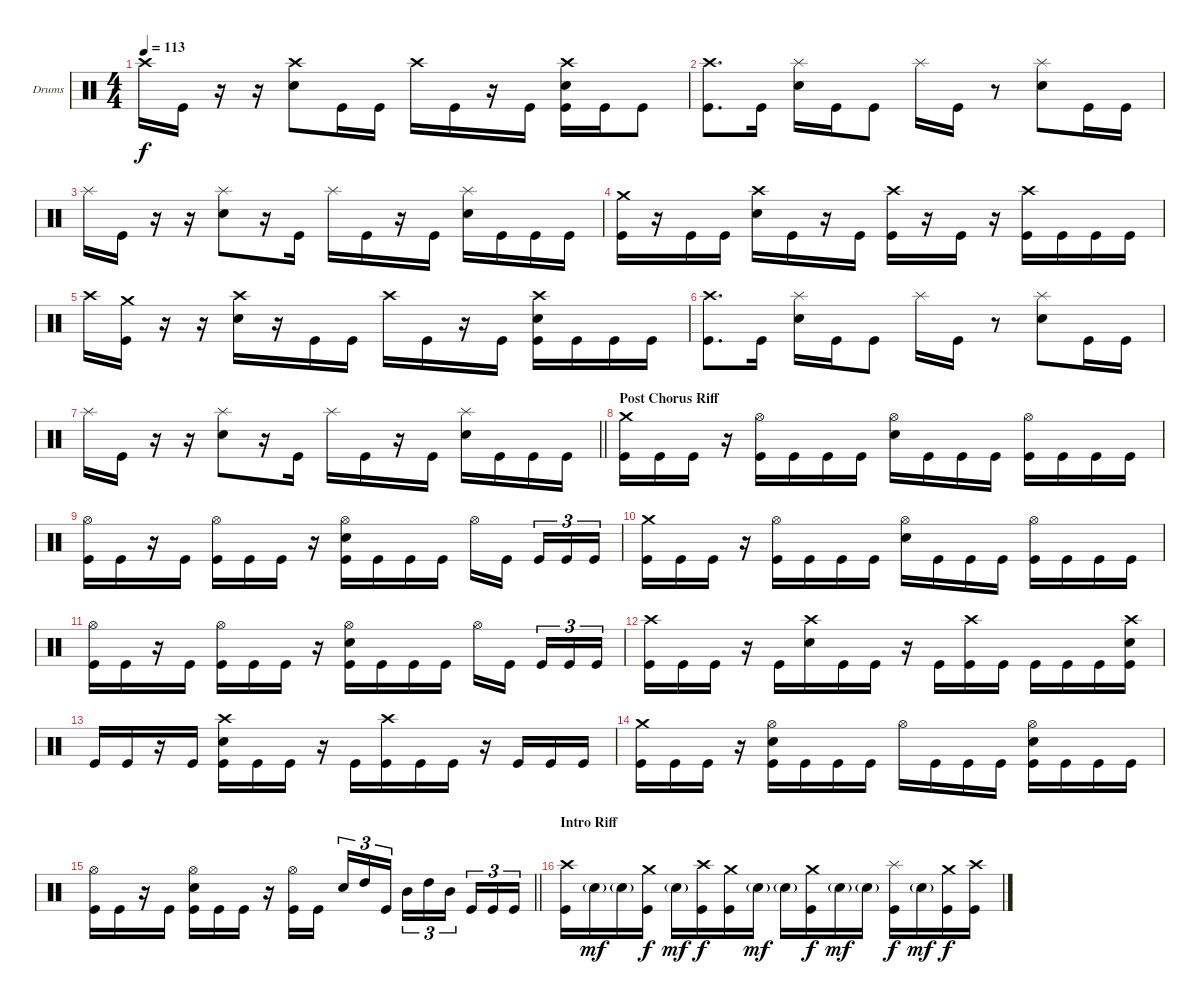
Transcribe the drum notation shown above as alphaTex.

\bracketExtendMode groupsimilarinstruments
\firstSystemTrackNameOrientation horizontal
\otherSystemsTrackNameOrientation horizontal
\track ("Drumkit" "Drums") {instrument percussion}
\staff {score}
\articulation defaults
\ts (4 4)
\tempo 113
\clef neutral
\ks c "Crash high (hit)".16{dy f} "Kick (hit)".16
r.16 r.16 ("Crash high (hit)" "Snare (hit) 2").8 "Kick (hit)".16 "Kick (hit)".16 "Crash high (hit)".16 "Kick (hit)".16 r.16 "Kick (hit)".16 ("Crash high (hit)" "Snare (hit) 2" "Kick (hit)").16 "Kick (hit)".16 "Kick (hit)".8 |
("Crash high (hit)" "Kick (hit)").8{d} "Kick (hit)".16 ("Splash (hit)" "Snare (hit) 2").16 "Kick (hit)".16 "Kick (hit)".8 "Splash (hit)".16 "Kick (hit)".16 r.8 ("Splash (hit)" "Snare (hit) 2").8 "Kick (hit)".16 "Kick (hit)".16 |
"Splash (hit)".16 "Kick (hit)".16 r.16 r.16 ("Splash (hit)" "Snare (hit) 2").8 r.16 "Kick (hit)".16 "Splash (hit)".16 "Kick (hit)".16 r.16 "Kick (hit)".16 ("Splash (hit)" "Snare (hit) 2").16 "Kick (hit)".16 "Kick (hit)".16 "Kick (hit)".16 |
("Crash medium (hit)" "Kick (hit)").16 r.16 "Kick (hit)".16 "Kick (hit)".16 ("Crash high (hit)" "Snare (hit) 2").16 "Kick (hit)".16 r.16 "Kick (hit)".16 ("Crash high (hit)" "Kick (hit)").16 r.16 "Kick (hit)".16 r.16 ("Crash high (hit)" "Kick (hit)").16 "Kick (hit)".16 "Kick (hit)".16 "Kick (hit)".16 |
"Crash high (hit)".16 ("Crash medium (hit)" "Kick (hit)").16 r.16 r.16 ("Crash high (hit)" "Snare (hit) 2").16 r.16 "Kick (hit)".16 "Kick (hit)".16 "Crash high (hit)".16 "Kick (hit)".16 r.16 "Kick (hit)".16 ("Crash high (hit)" "Snare (hit) 2" "Kick (hit)").16 "Kick (hit)".16 "Kick (hit)".16 "Kick (hit)".16 |
("Crash high (hit)" "Kick (hit)").8{d} "Kick (hit)".16 ("Splash (hit)" "Snare (hit) 2").16 "Kick (hit)".16 "Kick (hit)".8 "Splash (hit)".16 "Kick (hit)".16 r.8 ("Splash (hit)" "Snare (hit) 2").8 "Kick (hit)".16 "Kick (hit)".16 |
\barLineRight lightlight "Splash (hit)".16 "Kick (hit)".16
r.16 r.16 ("Splash (hit)" "Snare (hit) 2").8 r.16 "Kick (hit)".16 "Splash (hit)".16 "Kick (hit)".16 r.16 "Kick (hit)".16 ("Splash (hit)" "Snare (hit) 2").16 "Kick (hit)".16 "Kick (hit)".16 "Kick (hit)".16 |
\section ("" "Post Chorus Riff")
("Crash medium (hit)" "Kick (hit)").16 "Kick (hit)".16 "Kick (hit)".16 r.16 ("Hi-Hat (open)" "Kick (hit)").16 "Kick (hit)".16 "Kick (hit)".16 "Kick (hit)".16 ("Hi-Hat (open)" "Snare (hit) 2").16 "Kick (hit)".16 "Kick (hit)".16 "Kick (hit)".16 ("Hi-Hat (open)" "Kick (hit)").16 "Kick (hit)".16 "Kick (hit)".16 "Kick (hit)".16 |
("Hi-Hat (open)" "Kick (hit)").16 "Kick (hit)".16 r.16 "Kick (hit)".16 ("Hi-Hat (open)" "Kick (hit)").16 "Kick (hit)".16 "Kick (hit)".16 r.16 ("Hi-Hat (open)" "Snare (hit) 2" "Kick (hit)").16 "Kick (hit)".16 "Kick (hit)".16 "Kick (hit)".16 "Hi-Hat (open)".16 "Kick (hit)".16 "Kick (hit)".16{tu (3 2)} "Kick (hit)".16{tu (3 2)} "Kick (hit)".16{tu (3 2)} |
("Crash medium (hit)" "Kick (hit)").16 "Kick (hit)".16 "Kick (hit)".16 r.16 ("Hi-Hat (open)" "Kick (hit)").16 "Kick (hit)".16 "Kick (hit)".16 "Kick (hit)".16 ("Hi-Hat (open)" "Snare (hit) 2").16 "Kick (hit)".16 "Kick (hit)".16 "Kick (hit)".16 ("Hi-Hat (open)" "Kick (hit)").16 "Kick (hit)".16 "Kick (hit)".16 "Kick (hit)".16 |
("Hi-Hat (open)" "Kick (hit)").16 "Kick (hit)".16 r.16 "Kick (hit)".16 ("Hi-Hat (open)" "Kick (hit)").16 "Kick (hit)".16 "Kick (hit)".16 r.16 ("Hi-Hat (open)" "Snare (hit) 2" "Kick (hit)").16 "Kick (hit)".16 "Kick (hit)".16 "Kick (hit)".16 "Hi-Hat (open)".16 "Kick (hit)".16 "Kick (hit)".16{tu (3 2)} "Kick (hit)".16{tu (3 2)} "Kick (hit)".16{tu (3 2)} |
("Crash high (hit)" "Kick (hit)").16 "Kick (hit)".16 "Kick (hit)".16 r.16 "Kick (hit)".16 ("Crash high (hit)" "Snare (hit) 2").16 "Kick (hit)".16 "Kick (hit)".16 r.16 "Kick (hit)".16 ("Crash high (hit)" "Kick (hit)").16 "Kick (hit)".16 "Kick (hit)".16 "Kick (hit)".16 "Kick (hit)".16 ("Crash high (hit)" "Snare (hit) 2" "Kick (hit)").16 |
"Kick (hit)".16 "Kick (hit)".16 r.16 "Kick (hit)".16 ("Crash high (hit)" "Snare (hit) 2" "Kick (hit)").16 "Kick (hit)".16 "Kick (hit)".16 r.16 "Kick (hit)".16 ("Crash high (hit)" "Kick (hit)").16 "Kick (hit)".16 "Kick (hit)".16 r.16 "Kick (hit)".16 "Kick (hit)".16 "Kick (hit)".16 |
("Crash medium (hit)" "Kick (hit)").16 "Kick (hit)".16 "Kick (hit)".16 r.16 ("Hi-Hat (open)" "Snare (hit) 2" "Kick (hit)").16 "Kick (hit)".16 "Kick (hit)".16 "Kick (hit)".16 "Hi-Hat (open)".16 "Kick (hit)".16 "Kick (hit)".16 "Kick (hit)".16 ("Hi-Hat (open)" "Snare (hit) 2" "Kick (hit)").16 "Kick (hit)".16 "Kick (hit)".16 "Kick (hit)".16 |
\barLineRight lightlight
("Hi-Hat (open)" "Kick (hit)").16 "Kick (hit)".16 r.16 "Kick (hit)".16 ("Hi-Hat (open)" "Snare (hit) 2" "Kick (hit)").16 "Kick (hit)".16 "Kick (hit)".16 r.16 ("Hi-Hat (open)" "Kick (hit)").16 "Kick (hit)".16 "Snare (hit) 2".16{tu (3 2)} "High Tom (hit)".16{tu (3 2)} "Kick (hit)".16{tu (3 2)} "Mid Tom (hit)".16{tu (3 2)} "High Tom (hit)".16{tu (3 2)} "Mid Tom (hit)".16{tu (3 2)} "Kick (hit)".16{tu (3 2)} "Kick (hit)".16{tu (3 2)} "Kick (hit)".16{tu (3 2)} |
\section ("" "Intro Riff")
("Crash high (hit)" "Kick (hit)").16 "Snare (hit) 2"{g}.16{dy mf} "Snare (hit) 2"{g}.16 ("Crash medium (hit)" "Kick (hit)").16{dy f} "Snare (hit) 2"{g}.16{dy mf} ("Crash high (hit)" "Kick (hit)").16{dy f} ("Crash medium (hit)" "Kick (hit)").16 "Snare (hit) 2"{g}.16{dy mf} "Snare (hit) 2"{g}.16 ("Crash medium (hit)" "Kick (hit)").16{dy f} "Snare (hit) 2"{g}.16{dy mf} "Snare (hit) 2"{g}.16 ("Splash (hit)" "Kick (hit)").16{dy f} "Snare (hit) 2"{g}.16{dy mf} ("Crash medium (hit)" "Kick (hit)").16{dy f} ("Crash high (hit)" "Kick (hit)").16
